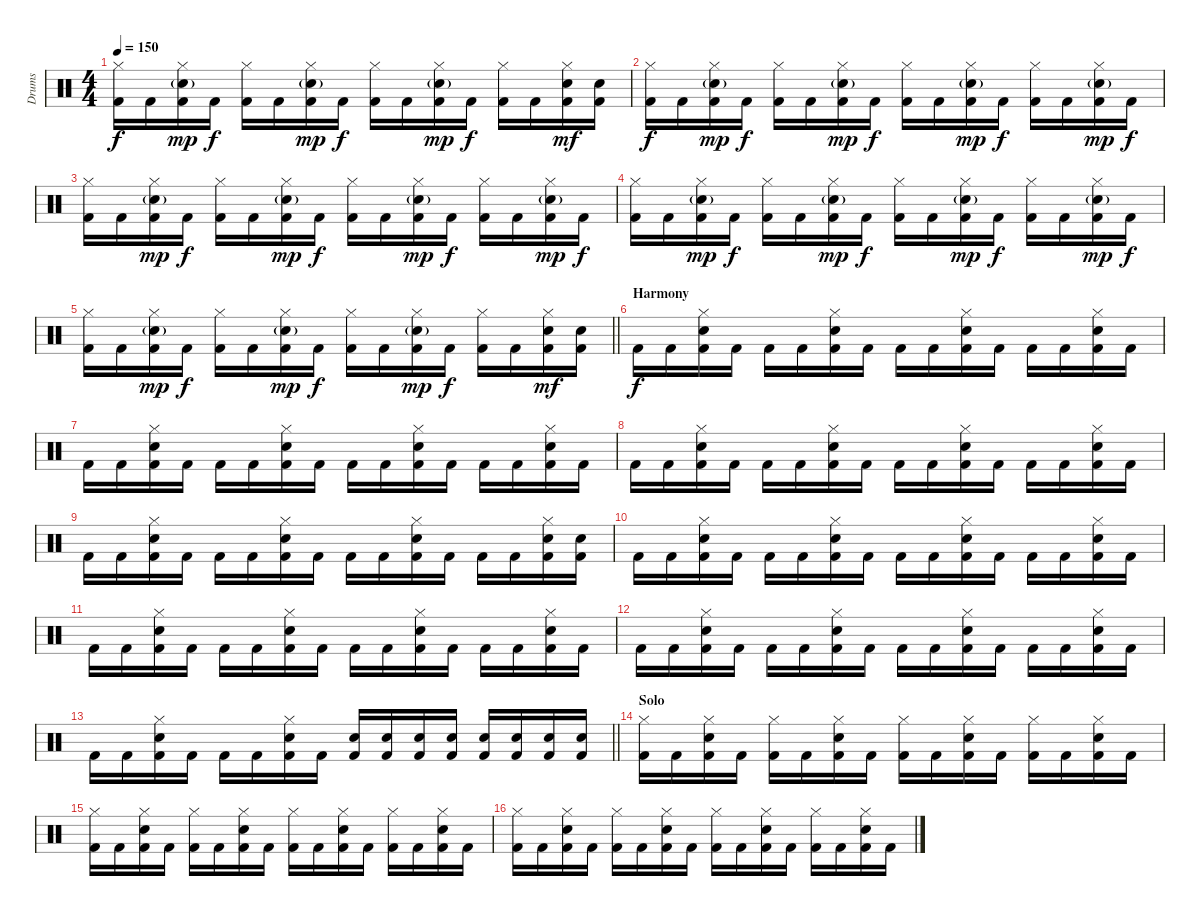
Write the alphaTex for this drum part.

\track ("Drums" "Drums") {instrument percussion}
\staff {score}
\articulation defaults
\ts (4 4)
\tempo 150
\clef neutral
\ks c
("Hi-Hat (closed)" "Kick (hit) 2").16{dy f} "Kick (hit) 2".16 ("Hi-Hat (closed)" "Electric Snare (hit)"{g} "Kick (hit) 2").16{dy mp} "Kick (hit) 2".16{dy f} ("Hi-Hat (closed)" "Kick (hit) 2").16 "Kick (hit) 2".16 ("Hi-Hat (closed)" "Electric Snare (hit)"{g} "Kick (hit) 2").16{dy mp} "Kick (hit) 2".16{dy f} ("Hi-Hat (closed)" "Kick (hit) 2").16 "Kick (hit) 2".16 ("Hi-Hat (closed)" "Electric Snare (hit)"{g} "Kick (hit) 2").16{dy mp} "Kick (hit) 2".16{dy f} ("Hi-Hat (closed)" "Kick (hit) 2").16 "Kick (hit) 2".16 ("Hi-Hat (closed)" "Electric Snare (hit)" "Kick (hit) 2").16{dy mf} ("Electric Snare (hit)" "Kick (hit) 2").16 |
("Hi-Hat (closed)" "Kick (hit) 2").16{dy f} "Kick (hit) 2".16 ("Hi-Hat (closed)" "Electric Snare (hit)"{g} "Kick (hit) 2").16{dy mp} "Kick (hit) 2".16{dy f} ("Hi-Hat (closed)" "Kick (hit) 2").16 "Kick (hit) 2".16 ("Hi-Hat (closed)" "Electric Snare (hit)"{g} "Kick (hit) 2").16{dy mp} "Kick (hit) 2".16{dy f} ("Hi-Hat (closed)" "Kick (hit) 2").16 "Kick (hit) 2".16 ("Hi-Hat (closed)" "Electric Snare (hit)"{g} "Kick (hit) 2").16{dy mp} "Kick (hit) 2".16{dy f} ("Hi-Hat (closed)" "Kick (hit) 2").16 "Kick (hit) 2".16 ("Hi-Hat (closed)" "Electric Snare (hit)"{g} "Kick (hit) 2").16{dy mp} "Kick (hit) 2".16{dy f} |
("Hi-Hat (closed)" "Kick (hit) 2").16 "Kick (hit) 2".16 ("Hi-Hat (closed)" "Electric Snare (hit)"{g} "Kick (hit) 2").16{dy mp} "Kick (hit) 2".16{dy f} ("Hi-Hat (closed)" "Kick (hit) 2").16 "Kick (hit) 2".16 ("Hi-Hat (closed)" "Electric Snare (hit)"{g} "Kick (hit) 2").16{dy mp} "Kick (hit) 2".16{dy f} ("Hi-Hat (closed)" "Kick (hit) 2").16 "Kick (hit) 2".16 ("Hi-Hat (closed)" "Electric Snare (hit)"{g} "Kick (hit) 2").16{dy mp} "Kick (hit) 2".16{dy f} ("Hi-Hat (closed)" "Kick (hit) 2").16 "Kick (hit) 2".16 ("Hi-Hat (closed)" "Electric Snare (hit)"{g} "Kick (hit) 2").16{dy mp} "Kick (hit) 2".16{dy f} |
("Hi-Hat (closed)" "Kick (hit) 2").16 "Kick (hit) 2".16 ("Hi-Hat (closed)" "Electric Snare (hit)"{g} "Kick (hit) 2").16{dy mp} "Kick (hit) 2".16{dy f} ("Hi-Hat (closed)" "Kick (hit) 2").16 "Kick (hit) 2".16 ("Hi-Hat (closed)" "Electric Snare (hit)"{g} "Kick (hit) 2").16{dy mp} "Kick (hit) 2".16{dy f} ("Hi-Hat (closed)" "Kick (hit) 2").16 "Kick (hit) 2".16 ("Hi-Hat (closed)" "Electric Snare (hit)"{g} "Kick (hit) 2").16{dy mp} "Kick (hit) 2".16{dy f} ("Hi-Hat (closed)" "Kick (hit) 2").16 "Kick (hit) 2".16 ("Hi-Hat (closed)" "Electric Snare (hit)"{g} "Kick (hit) 2").16{dy mp} "Kick (hit) 2".16{dy f} |
\barLineRight lightlight
("Hi-Hat (closed)" "Kick (hit) 2").16 "Kick (hit) 2".16 ("Hi-Hat (closed)" "Electric Snare (hit)"{g} "Kick (hit) 2").16{dy mp} "Kick (hit) 2".16{dy f} ("Hi-Hat (closed)" "Kick (hit) 2").16 "Kick (hit) 2".16 ("Hi-Hat (closed)" "Electric Snare (hit)"{g} "Kick (hit) 2").16{dy mp} "Kick (hit) 2".16{dy f} ("Hi-Hat (closed)" "Kick (hit) 2").16 "Kick (hit) 2".16 ("Hi-Hat (closed)" "Electric Snare (hit)"{g} "Kick (hit) 2").16{dy mp} "Kick (hit) 2".16{dy f} ("Hi-Hat (closed)" "Kick (hit) 2").16 "Kick (hit) 2".16 ("Hi-Hat (closed)" "Electric Snare (hit)" "Kick (hit) 2").16{dy mf} ("Electric Snare (hit)" "Kick (hit) 2").16 |
\section ("" "Harmony")
"Kick (hit) 2".16{dy f} "Kick (hit) 2".16 ("Hi-Hat (closed)" "Electric Snare (hit)" "Kick (hit) 2").16 "Kick (hit) 2".16 "Kick (hit) 2".16 "Kick (hit) 2".16 ("Hi-Hat (closed)" "Electric Snare (hit)" "Kick (hit) 2").16 "Kick (hit) 2".16 "Kick (hit) 2".16 "Kick (hit) 2".16 ("Hi-Hat (closed)" "Electric Snare (hit)" "Kick (hit) 2").16 "Kick (hit) 2".16 "Kick (hit) 2".16 "Kick (hit) 2".16 ("Hi-Hat (closed)" "Electric Snare (hit)" "Kick (hit) 2").16 "Kick (hit) 2".16 |
"Kick (hit) 2".16 "Kick (hit) 2".16 ("Hi-Hat (closed)" "Electric Snare (hit)" "Kick (hit) 2").16 "Kick (hit) 2".16 "Kick (hit) 2".16 "Kick (hit) 2".16 ("Hi-Hat (closed)" "Electric Snare (hit)" "Kick (hit) 2").16 "Kick (hit) 2".16 "Kick (hit) 2".16 "Kick (hit) 2".16 ("Hi-Hat (closed)" "Electric Snare (hit)" "Kick (hit) 2").16 "Kick (hit) 2".16 "Kick (hit) 2".16 "Kick (hit) 2".16 ("Hi-Hat (closed)" "Electric Snare (hit)" "Kick (hit) 2").16 "Kick (hit) 2".16 |
"Kick (hit) 2".16 "Kick (hit) 2".16 ("Hi-Hat (closed)" "Electric Snare (hit)" "Kick (hit) 2").16 "Kick (hit) 2".16 "Kick (hit) 2".16 "Kick (hit) 2".16 ("Hi-Hat (closed)" "Electric Snare (hit)" "Kick (hit) 2").16 "Kick (hit) 2".16 "Kick (hit) 2".16 "Kick (hit) 2".16 ("Hi-Hat (closed)" "Electric Snare (hit)" "Kick (hit) 2").16 "Kick (hit) 2".16 "Kick (hit) 2".16 "Kick (hit) 2".16 ("Hi-Hat (closed)" "Electric Snare (hit)" "Kick (hit) 2").16 "Kick (hit) 2".16 |
"Kick (hit) 2".16 "Kick (hit) 2".16 ("Hi-Hat (closed)" "Electric Snare (hit)" "Kick (hit) 2").16 "Kick (hit) 2".16 "Kick (hit) 2".16 "Kick (hit) 2".16 ("Hi-Hat (closed)" "Electric Snare (hit)" "Kick (hit) 2").16 "Kick (hit) 2".16 "Kick (hit) 2".16 "Kick (hit) 2".16 ("Hi-Hat (closed)" "Electric Snare (hit)" "Kick (hit) 2").16 "Kick (hit) 2".16 "Kick (hit) 2".16 "Kick (hit) 2".16 ("Hi-Hat (closed)" "Electric Snare (hit)" "Kick (hit) 2").16 ("Electric Snare (hit)" "Kick (hit) 2").16 |
"Kick (hit) 2".16 "Kick (hit) 2".16 ("Hi-Hat (closed)" "Electric Snare (hit)" "Kick (hit) 2").16 "Kick (hit) 2".16 "Kick (hit) 2".16 "Kick (hit) 2".16 ("Hi-Hat (closed)" "Electric Snare (hit)" "Kick (hit) 2").16 "Kick (hit) 2".16 "Kick (hit) 2".16 "Kick (hit) 2".16 ("Hi-Hat (closed)" "Electric Snare (hit)" "Kick (hit) 2").16 "Kick (hit) 2".16 "Kick (hit) 2".16 "Kick (hit) 2".16 ("Hi-Hat (closed)" "Electric Snare (hit)" "Kick (hit) 2").16 "Kick (hit) 2".16 |
"Kick (hit) 2".16 "Kick (hit) 2".16 ("Hi-Hat (closed)" "Electric Snare (hit)" "Kick (hit) 2").16 "Kick (hit) 2".16 "Kick (hit) 2".16 "Kick (hit) 2".16 ("Hi-Hat (closed)" "Electric Snare (hit)" "Kick (hit) 2").16 "Kick (hit) 2".16 "Kick (hit) 2".16 "Kick (hit) 2".16 ("Hi-Hat (closed)" "Electric Snare (hit)" "Kick (hit) 2").16 "Kick (hit) 2".16 "Kick (hit) 2".16 "Kick (hit) 2".16 ("Hi-Hat (closed)" "Electric Snare (hit)" "Kick (hit) 2").16 "Kick (hit) 2".16 |
"Kick (hit) 2".16 "Kick (hit) 2".16 ("Hi-Hat (closed)" "Electric Snare (hit)" "Kick (hit) 2").16 "Kick (hit) 2".16 "Kick (hit) 2".16 "Kick (hit) 2".16 ("Hi-Hat (closed)" "Electric Snare (hit)" "Kick (hit) 2").16 "Kick (hit) 2".16 "Kick (hit) 2".16 "Kick (hit) 2".16 ("Hi-Hat (closed)" "Electric Snare (hit)" "Kick (hit) 2").16 "Kick (hit) 2".16 "Kick (hit) 2".16 "Kick (hit) 2".16 ("Hi-Hat (closed)" "Electric Snare (hit)" "Kick (hit) 2").16 "Kick (hit) 2".16 |
\barLineRight lightlight "Kick (hit) 2".16 "Kick (hit) 2".16
("Hi-Hat (closed)" "Electric Snare (hit)" "Kick (hit) 2").16 "Kick (hit) 2".16 "Kick (hit) 2".16 "Kick (hit) 2".16 ("Hi-Hat (closed)" "Electric Snare (hit)" "Kick (hit) 2").16 "Kick (hit) 2".16 ("Electric Snare (hit)" "Kick (hit) 2").16 ("Electric Snare (hit)" "Kick (hit) 2").16 ("Electric Snare (hit)" "Kick (hit) 2").16 ("Electric Snare (hit)" "Kick (hit) 2").16 ("Electric Snare (hit)" "Kick (hit) 2").16 ("Electric Snare (hit)" "Kick (hit) 2").16 ("Electric Snare (hit)" "Kick (hit) 2").16 ("Electric Snare (hit)" "Kick (hit) 2").16 |
\section ("" "Solo")
("Hi-Hat (closed)" "Kick (hit) 2").16 "Kick (hit) 2".16 ("Hi-Hat (closed)" "Electric Snare (hit)" "Kick (hit) 2").16 "Kick (hit) 2".16 ("Hi-Hat (closed)" "Kick (hit) 2").16 "Kick (hit) 2".16 ("Hi-Hat (closed)" "Electric Snare (hit)" "Kick (hit) 2").16 "Kick (hit) 2".16 ("Hi-Hat (closed)" "Kick (hit) 2").16 "Kick (hit) 2".16 ("Hi-Hat (closed)" "Electric Snare (hit)" "Kick (hit) 2").16 "Kick (hit) 2".16 ("Hi-Hat (closed)" "Kick (hit) 2").16 "Kick (hit) 2".16 ("Hi-Hat (closed)" "Electric Snare (hit)" "Kick (hit) 2").16 "Kick (hit) 2".16 |
("Hi-Hat (closed)" "Kick (hit) 2").16 "Kick (hit) 2".16 ("Hi-Hat (closed)" "Electric Snare (hit)" "Kick (hit) 2").16 "Kick (hit) 2".16 ("Hi-Hat (closed)" "Kick (hit) 2").16 "Kick (hit) 2".16 ("Hi-Hat (closed)" "Electric Snare (hit)" "Kick (hit) 2").16 "Kick (hit) 2".16 ("Hi-Hat (closed)" "Kick (hit) 2").16 "Kick (hit) 2".16 ("Hi-Hat (closed)" "Electric Snare (hit)" "Kick (hit) 2").16 "Kick (hit) 2".16 ("Hi-Hat (closed)" "Kick (hit) 2").16 "Kick (hit) 2".16 ("Hi-Hat (closed)" "Electric Snare (hit)" "Kick (hit) 2").16 "Kick (hit) 2".16 |
("Hi-Hat (closed)" "Kick (hit) 2").16 "Kick (hit) 2".16 ("Hi-Hat (closed)" "Electric Snare (hit)" "Kick (hit) 2").16 "Kick (hit) 2".16 ("Hi-Hat (closed)" "Kick (hit) 2").16 "Kick (hit) 2".16 ("Hi-Hat (closed)" "Electric Snare (hit)" "Kick (hit) 2").16 "Kick (hit) 2".16 ("Hi-Hat (closed)" "Kick (hit) 2").16 "Kick (hit) 2".16 ("Hi-Hat (closed)" "Electric Snare (hit)" "Kick (hit) 2").16 "Kick (hit) 2".16 ("Hi-Hat (closed)" "Kick (hit) 2").16 "Kick (hit) 2".16 ("Hi-Hat (closed)" "Electric Snare (hit)" "Kick (hit) 2").16 "Kick (hit) 2".16
